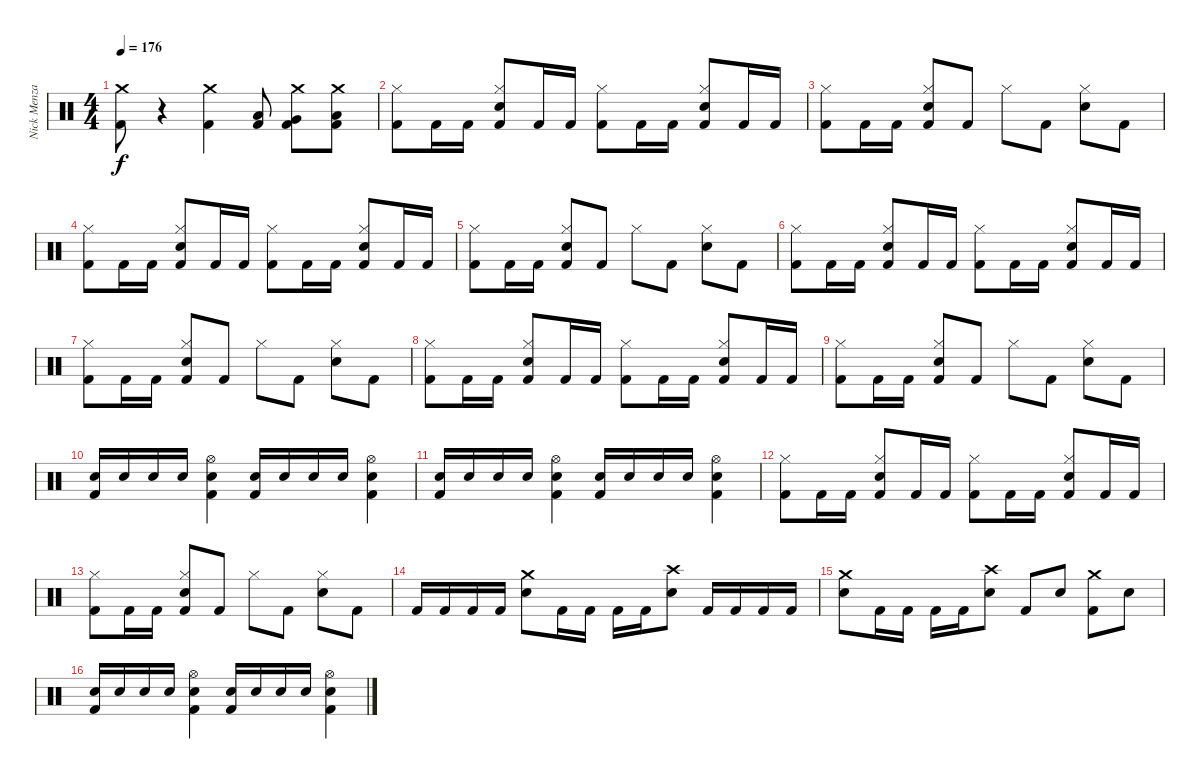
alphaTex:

\track ("Nick Menza" "Nick Menza") {instrument percussion}
\staff {score}
\articulation defaults
\ts (4 4)
\tempo 176
\clef neutral
\ks c
("Crash medium (hit)" "Kick (hit) 2").8{dy f} r.4 ("Crash medium (hit)" "Kick (hit) 2").4 ("Low Tom (hit)" "Kick (hit) 2").8 ("Crash medium (hit)" "Very Low Tom (hit)" "Kick (hit) 2").8 ("Crash medium (hit)" "Low Floor Tom (hit)" "Kick (hit) 2").8 |
("Hi-Hat (closed)" "Kick (hit) 2").8 "Kick (hit) 2".16 "Kick (hit) 2".16 ("Hi-Hat (closed)" "Electric Snare (hit)" "Kick (hit) 2").8 "Kick (hit) 2".16 "Kick (hit) 2".16 ("Hi-Hat (closed)" "Kick (hit) 2").8 "Kick (hit) 2".16 "Kick (hit) 2".16 ("Hi-Hat (closed)" "Electric Snare (hit)" "Kick (hit) 2").8 "Kick (hit) 2".16 "Kick (hit) 2".16 |
("Hi-Hat (closed)" "Kick (hit) 2").8 "Kick (hit) 2".16 "Kick (hit) 2".16 ("Hi-Hat (closed)" "Electric Snare (hit)" "Kick (hit) 2").8 "Kick (hit) 2".8 "Hi-Hat (closed)".8 "Kick (hit) 2".8 ("Hi-Hat (closed)" "Electric Snare (hit)").8 "Kick (hit) 2".8 |
("Hi-Hat (closed)" "Kick (hit) 2").8 "Kick (hit) 2".16 "Kick (hit) 2".16 ("Hi-Hat (closed)" "Electric Snare (hit)" "Kick (hit) 2").8 "Kick (hit) 2".16 "Kick (hit) 2".16 ("Hi-Hat (closed)" "Kick (hit) 2").8 "Kick (hit) 2".16 "Kick (hit) 2".16 ("Hi-Hat (closed)" "Electric Snare (hit)" "Kick (hit) 2").8 "Kick (hit) 2".16 "Kick (hit) 2".16 |
("Hi-Hat (closed)" "Kick (hit) 2").8 "Kick (hit) 2".16 "Kick (hit) 2".16 ("Hi-Hat (closed)" "Electric Snare (hit)" "Kick (hit) 2").8 "Kick (hit) 2".8 "Hi-Hat (closed)".8 "Kick (hit) 2".8 ("Hi-Hat (closed)" "Electric Snare (hit)").8 "Kick (hit) 2".8 |
("Hi-Hat (closed)" "Kick (hit) 2").8 "Kick (hit) 2".16 "Kick (hit) 2".16 ("Hi-Hat (closed)" "Electric Snare (hit)" "Kick (hit) 2").8 "Kick (hit) 2".16 "Kick (hit) 2".16 ("Hi-Hat (closed)" "Kick (hit) 2").8 "Kick (hit) 2".16 "Kick (hit) 2".16 ("Hi-Hat (closed)" "Electric Snare (hit)" "Kick (hit) 2").8 "Kick (hit) 2".16 "Kick (hit) 2".16 |
("Hi-Hat (closed)" "Kick (hit) 2").8 "Kick (hit) 2".16 "Kick (hit) 2".16 ("Hi-Hat (closed)" "Electric Snare (hit)" "Kick (hit) 2").8 "Kick (hit) 2".8 "Hi-Hat (closed)".8 "Kick (hit) 2".8 ("Hi-Hat (closed)" "Electric Snare (hit)").8 "Kick (hit) 2".8 |
("Hi-Hat (closed)" "Kick (hit) 2").8 "Kick (hit) 2".16 "Kick (hit) 2".16 ("Hi-Hat (closed)" "Electric Snare (hit)" "Kick (hit) 2").8 "Kick (hit) 2".16 "Kick (hit) 2".16 ("Hi-Hat (closed)" "Kick (hit) 2").8 "Kick (hit) 2".16 "Kick (hit) 2".16 ("Hi-Hat (closed)" "Electric Snare (hit)" "Kick (hit) 2").8 "Kick (hit) 2".16 "Kick (hit) 2".16 |
("Hi-Hat (closed)" "Kick (hit) 2").8 "Kick (hit) 2".16 "Kick (hit) 2".16 ("Hi-Hat (closed)" "Electric Snare (hit)" "Kick (hit) 2").8 "Kick (hit) 2".8 "Hi-Hat (closed)".8 "Kick (hit) 2".8 ("Hi-Hat (closed)" "Electric Snare (hit)").8 "Kick (hit) 2".8 |
("Kick (hit) 2" "Electric Snare (hit)").16 "Electric Snare (hit)".16 "Electric Snare (hit)".16 "Electric Snare (hit)".16 ("Kick (hit) 2" "Electric Snare (hit)" "Hi-Hat (open)").4 ("Kick (hit) 2" "Electric Snare (hit)").16 "Electric Snare (hit)".16 "Electric Snare (hit)".16 "Electric Snare (hit)".16 ("Kick (hit) 2" "Electric Snare (hit)" "Hi-Hat (open)").4 |
("Kick (hit) 2" "Electric Snare (hit)").16 "Electric Snare (hit)".16 "Electric Snare (hit)".16 "Electric Snare (hit)".16 ("Kick (hit) 2" "Electric Snare (hit)" "Hi-Hat (open)").4 ("Kick (hit) 2" "Electric Snare (hit)").16 "Electric Snare (hit)".16 "Electric Snare (hit)".16 "Electric Snare (hit)".16 ("Kick (hit) 2" "Electric Snare (hit)" "Hi-Hat (open)").4 |
("Hi-Hat (closed)" "Kick (hit) 2").8 "Kick (hit) 2".16 "Kick (hit) 2".16 ("Hi-Hat (closed)" "Electric Snare (hit)" "Kick (hit) 2").8 "Kick (hit) 2".16 "Kick (hit) 2".16 ("Hi-Hat (closed)" "Kick (hit) 2").8 "Kick (hit) 2".16 "Kick (hit) 2".16 ("Hi-Hat (closed)" "Electric Snare (hit)" "Kick (hit) 2").8 "Kick (hit) 2".16 "Kick (hit) 2".16 |
("Hi-Hat (closed)" "Kick (hit) 2").8 "Kick (hit) 2".16 "Kick (hit) 2".16 ("Hi-Hat (closed)" "Electric Snare (hit)" "Kick (hit) 2").8 "Kick (hit) 2".8 "Hi-Hat (closed)".8 "Kick (hit) 2".8 ("Hi-Hat (closed)" "Electric Snare (hit)").8 "Kick (hit) 2".8 |
"Kick (hit) 2".16 "Kick (hit) 2".16 "Kick (hit) 2".16 "Kick (hit) 2".16 ("Crash medium (hit)" "Electric Snare (hit)").8 "Kick (hit) 2".16 "Kick (hit) 2".16 "Kick (hit) 2".16 "Kick (hit) 2".16 ("Crash high (hit)" "Electric Snare (hit)").8 "Kick (hit) 2".16 "Kick (hit) 2".16 "Kick (hit) 2".16 "Kick (hit) 2".16 |
("Crash medium (hit)" "Electric Snare (hit)").8 "Kick (hit) 2".16 "Kick (hit) 2".16 "Kick (hit) 2".16 "Kick (hit) 2".16 ("Crash high (hit)" "Electric Snare (hit)").8 "Kick (hit) 2".8 "Electric Snare (hit)".8 ("Crash medium (hit)" "Kick (hit) 2").8 "Electric Snare (hit)".8 |
("Kick (hit) 2" "Electric Snare (hit)").16 "Electric Snare (hit)".16 "Electric Snare (hit)".16 "Electric Snare (hit)".16 ("Kick (hit) 2" "Electric Snare (hit)" "Hi-Hat (open)").4 ("Kick (hit) 2" "Electric Snare (hit)").16 "Electric Snare (hit)".16 "Electric Snare (hit)".16 "Electric Snare (hit)".16 ("Kick (hit) 2" "Electric Snare (hit)" "Hi-Hat (open)").4
